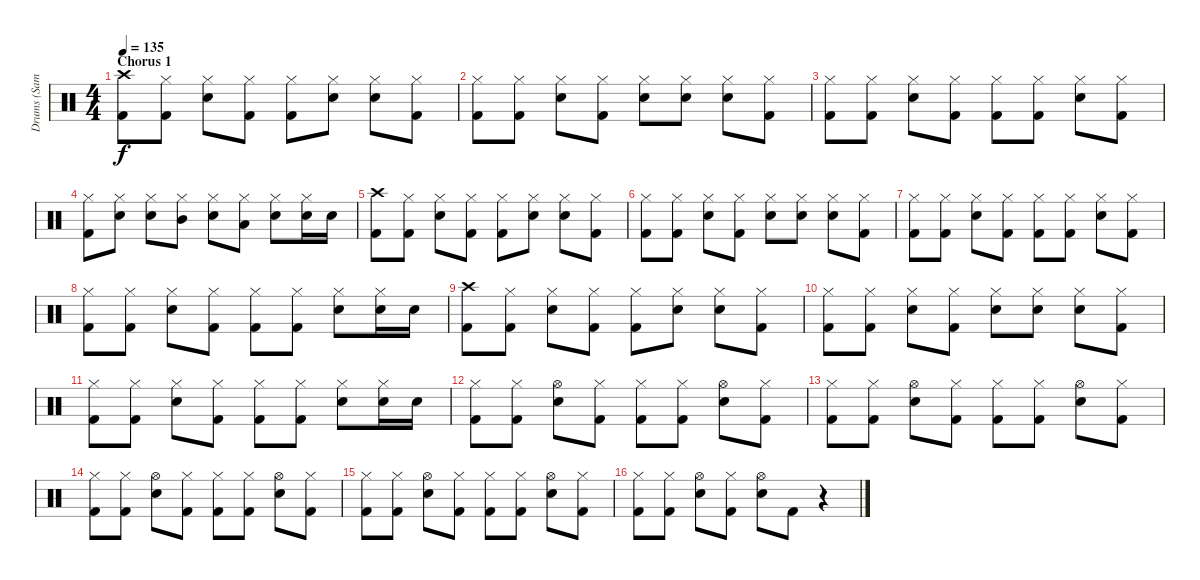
\track ("Drums (Sam Fogarino)" "Drums (Sam") {instrument percussion}
\staff {score}
\articulation defaults
\ts (4 4)
\section ("" "Chorus 1")
\tempo 135
\clef neutral
\ks c
("Crash high (hit)" "Kick (hit) 2").8{dy f} ("Hi-Hat (closed)" "Kick (hit) 2").8 ("Hi-Hat (closed)" "Snare (hit) 2").8 ("Hi-Hat (closed)" "Kick (hit) 2").8 ("Hi-Hat (closed)" "Kick (hit) 2").8 ("Hi-Hat (closed)" "Snare (hit) 2").8 ("Hi-Hat (closed)" "Snare (hit) 2").8 ("Hi-Hat (closed)" "Kick (hit) 2").8 |
("Hi-Hat (closed)" "Kick (hit) 2").8 ("Hi-Hat (closed)" "Kick (hit) 2").8 ("Hi-Hat (closed)" "Snare (hit) 2").8 ("Hi-Hat (closed)" "Kick (hit) 2").8 ("Hi-Hat (closed)" "Snare (hit) 2").8 ("Hi-Hat (closed)" "Snare (hit) 2").8 ("Hi-Hat (closed)" "Snare (hit) 2").8 ("Hi-Hat (closed)" "Kick (hit) 2").8 |
("Hi-Hat (closed)" "Kick (hit) 2").8 ("Hi-Hat (closed)" "Kick (hit) 2").8 ("Hi-Hat (closed)" "Snare (hit) 2").8 ("Hi-Hat (closed)" "Kick (hit) 2").8 ("Hi-Hat (closed)" "Kick (hit) 2").8 ("Hi-Hat (closed)" "Kick (hit) 2").8 ("Hi-Hat (closed)" "Snare (hit) 2").8 ("Hi-Hat (closed)" "Kick (hit) 2").8 |
("Hi-Hat (closed)" "Kick (hit) 2").8 ("Hi-Hat (closed)" "Snare (hit) 2").8 ("Hi-Hat (closed)" "Snare (hit) 2").8 ("Hi-Hat (closed)" "Mid Tom (hit)").8 ("Hi-Hat (closed)" "Snare (hit) 2").8 ("Hi-Hat (closed)" "Low Tom (hit)").8 ("Hi-Hat (closed)" "Snare (hit) 2").8 ("Hi-Hat (closed)" "Snare (hit) 2").16 "Snare (hit) 2".16 |
("Crash high (hit)" "Kick (hit) 2").8 ("Hi-Hat (closed)" "Kick (hit) 2").8 ("Hi-Hat (closed)" "Snare (hit) 2").8 ("Hi-Hat (closed)" "Kick (hit) 2").8 ("Hi-Hat (closed)" "Kick (hit) 2").8 ("Hi-Hat (closed)" "Snare (hit) 2").8 ("Hi-Hat (closed)" "Snare (hit) 2").8 ("Hi-Hat (closed)" "Kick (hit) 2").8 |
("Hi-Hat (closed)" "Kick (hit) 2").8 ("Hi-Hat (closed)" "Kick (hit) 2").8 ("Hi-Hat (closed)" "Snare (hit) 2").8 ("Hi-Hat (closed)" "Kick (hit) 2").8 ("Hi-Hat (closed)" "Snare (hit) 2").8 ("Hi-Hat (closed)" "Snare (hit) 2").8 ("Hi-Hat (closed)" "Snare (hit) 2").8 ("Hi-Hat (closed)" "Kick (hit) 2").8 |
("Hi-Hat (closed)" "Kick (hit) 2").8 ("Hi-Hat (closed)" "Kick (hit) 2").8 ("Hi-Hat (closed)" "Snare (hit) 2").8 ("Hi-Hat (closed)" "Kick (hit) 2").8 ("Hi-Hat (closed)" "Kick (hit) 2").8 ("Hi-Hat (closed)" "Kick (hit) 2").8 ("Hi-Hat (closed)" "Snare (hit) 2").8 ("Hi-Hat (closed)" "Kick (hit) 2").8 |
("Hi-Hat (closed)" "Kick (hit) 2").8 ("Hi-Hat (closed)" "Kick (hit) 2").8 ("Hi-Hat (closed)" "Snare (hit) 2").8 ("Hi-Hat (closed)" "Kick (hit) 2").8 ("Hi-Hat (closed)" "Kick (hit) 2").8 ("Hi-Hat (closed)" "Kick (hit) 2").8 ("Hi-Hat (closed)" "Snare (hit) 2").8 ("Hi-Hat (closed)" "Snare (hit) 2").16 "Snare (hit) 2".16 |
("Crash high (hit)" "Kick (hit) 2").8 ("Hi-Hat (closed)" "Kick (hit) 2").8 ("Hi-Hat (closed)" "Snare (hit) 2").8 ("Hi-Hat (closed)" "Kick (hit) 2").8 ("Hi-Hat (closed)" "Kick (hit) 2").8 ("Hi-Hat (closed)" "Snare (hit) 2").8 ("Hi-Hat (closed)" "Snare (hit) 2").8 ("Hi-Hat (closed)" "Kick (hit) 2").8 |
("Hi-Hat (closed)" "Kick (hit) 2").8 ("Hi-Hat (closed)" "Kick (hit) 2").8 ("Hi-Hat (closed)" "Snare (hit) 2").8 ("Hi-Hat (closed)" "Kick (hit) 2").8 ("Hi-Hat (closed)" "Snare (hit) 2").8 ("Hi-Hat (closed)" "Snare (hit) 2").8 ("Hi-Hat (closed)" "Snare (hit) 2").8 ("Hi-Hat (closed)" "Kick (hit) 2").8 |
("Hi-Hat (closed)" "Kick (hit) 2").8 ("Hi-Hat (closed)" "Kick (hit) 2").8 ("Hi-Hat (closed)" "Snare (hit) 2").8 ("Hi-Hat (closed)" "Kick (hit) 2").8 ("Hi-Hat (closed)" "Kick (hit) 2").8 ("Hi-Hat (closed)" "Kick (hit) 2").8 ("Hi-Hat (closed)" "Snare (hit) 2").8 ("Hi-Hat (closed)" "Snare (hit) 2").16 "Snare (hit) 2".16 |
("Hi-Hat (closed)" "Kick (hit) 2").8 ("Hi-Hat (closed)" "Kick (hit) 2").8 ("Hi-Hat (open)" "Snare (hit) 2").8 ("Hi-Hat (closed)" "Kick (hit) 2").8 ("Hi-Hat (closed)" "Kick (hit) 2").8 ("Hi-Hat (closed)" "Kick (hit) 2").8 ("Hi-Hat (open)" "Snare (hit) 2").8 ("Hi-Hat (closed)" "Kick (hit) 2").8 |
("Hi-Hat (closed)" "Kick (hit) 2").8 ("Hi-Hat (closed)" "Kick (hit) 2").8 ("Hi-Hat (open)" "Snare (hit) 2").8 ("Hi-Hat (closed)" "Kick (hit) 2").8 ("Hi-Hat (closed)" "Kick (hit) 2").8 ("Hi-Hat (closed)" "Kick (hit) 2").8 ("Hi-Hat (open)" "Snare (hit) 2").8 ("Hi-Hat (closed)" "Kick (hit) 2").8 |
("Hi-Hat (closed)" "Kick (hit) 2").8 ("Hi-Hat (closed)" "Kick (hit) 2").8 ("Hi-Hat (open)" "Snare (hit) 2").8 ("Hi-Hat (closed)" "Kick (hit) 2").8 ("Hi-Hat (closed)" "Kick (hit) 2").8 ("Hi-Hat (closed)" "Kick (hit) 2").8 ("Hi-Hat (open)" "Snare (hit) 2").8 ("Hi-Hat (closed)" "Kick (hit) 2").8 |
("Hi-Hat (closed)" "Kick (hit) 2").8 ("Hi-Hat (closed)" "Kick (hit) 2").8 ("Hi-Hat (open)" "Snare (hit) 2").8 ("Hi-Hat (closed)" "Kick (hit) 2").8 ("Hi-Hat (closed)" "Kick (hit) 2").8 ("Hi-Hat (closed)" "Kick (hit) 2").8 ("Hi-Hat (open)" "Snare (hit) 2").8 ("Hi-Hat (closed)" "Kick (hit) 2").8 |
("Hi-Hat (closed)" "Kick (hit) 2").8 ("Hi-Hat (closed)" "Kick (hit) 2").8 ("Hi-Hat (open)" "Snare (hit) 2").8 ("Hi-Hat (closed)" "Kick (hit) 2").8 ("Hi-Hat (open)" "Snare (hit) 2").8 "Kick (hit) 2".8 r.4
